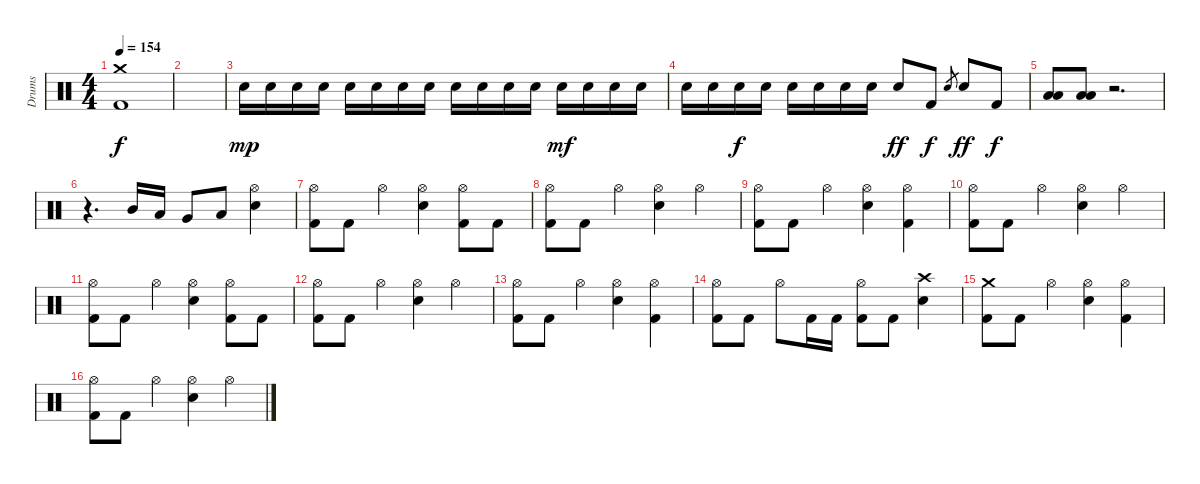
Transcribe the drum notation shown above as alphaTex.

\track ("Drums" "Drums") {instrument percussion}
\staff {score}
\articulation defaults
\ts (4 4)
\tempo 154
\clef neutral
\ks c
("Crash medium (hit)" "Kick (hit) 2").1{dy f} |
|
"Electric Snare (hit)".16{dy mp} "Electric Snare (hit)".16 "Electric Snare (hit)".16 "Electric Snare (hit)".16 "Electric Snare (hit)".16 "Electric Snare (hit)".16 "Electric Snare (hit)".16 "Electric Snare (hit)".16 "Electric Snare (hit)".16 "Electric Snare (hit)".16 "Electric Snare (hit)".16 "Electric Snare (hit)".16 "Electric Snare (hit)".16{dy mf} "Electric Snare (hit)".16 "Electric Snare (hit)".16 "Electric Snare (hit)".16 |
"Electric Snare (hit)".16 "Electric Snare (hit)".16 "Electric Snare (hit)".16{dy f} "Electric Snare (hit)".16 "Electric Snare (hit)".16 "Electric Snare (hit)".16 "Electric Snare (hit)".16 "Electric Snare (hit)".16 "Electric Snare (hit)".8{dy ff} "Kick (hit) 2".8{dy f} "Electric Snare (hit)".8{gr} "Electric Snare (hit)".8{dy ff} "Kick (hit) 2".8{dy f} |
("Low Tom (hit)" "Low Floor Tom (hit)").8 ("Low Tom (hit)" "Low Floor Tom (hit)").8 r.2{d} |
r.4{d} "Mid Tom (hit)".16 "Low Tom (hit)".16 "Very Low Tom (hit)".8 "Low Floor Tom (hit)".8 ("Hi-Hat (open)" "Electric Snare (hit)").4 |
("Hi-Hat (open)" "Kick (hit) 2").8 "Kick (hit) 2".8 "Hi-Hat (open)".4 ("Hi-Hat (open)" "Electric Snare (hit)").4 ("Hi-Hat (open)" "Kick (hit) 2").8 "Kick (hit) 2".8 |
("Hi-Hat (open)" "Kick (hit) 2").8 "Kick (hit) 2".8 "Hi-Hat (open)".4 ("Hi-Hat (open)" "Electric Snare (hit)").4 "Hi-Hat (open)".4 |
("Hi-Hat (open)" "Kick (hit) 2").8 "Kick (hit) 2".8 "Hi-Hat (open)".4 ("Hi-Hat (open)" "Electric Snare (hit)").4 ("Hi-Hat (open)" "Kick (hit) 2").4 |
("Hi-Hat (open)" "Kick (hit) 2").8 "Kick (hit) 2".8 "Hi-Hat (open)".4 ("Hi-Hat (open)" "Electric Snare (hit)").4 "Hi-Hat (open)".4 |
("Hi-Hat (open)" "Kick (hit) 2").8 "Kick (hit) 2".8 "Hi-Hat (open)".4 ("Hi-Hat (open)" "Electric Snare (hit)").4 ("Hi-Hat (open)" "Kick (hit) 2").8 "Kick (hit) 2".8 |
("Hi-Hat (open)" "Kick (hit) 2").8 "Kick (hit) 2".8 "Hi-Hat (open)".4 ("Hi-Hat (open)" "Electric Snare (hit)").4 "Hi-Hat (open)".4 |
("Hi-Hat (open)" "Kick (hit) 2").8 "Kick (hit) 2".8 "Hi-Hat (open)".4 ("Hi-Hat (open)" "Electric Snare (hit)").4 ("Hi-Hat (open)" "Kick (hit) 2").4 |
("Hi-Hat (open)" "Kick (hit) 2").8 "Kick (hit) 2".8 "Hi-Hat (open)".8 "Kick (hit) 2".16 "Kick (hit) 2".16 ("Hi-Hat (open)" "Kick (hit) 2").8 "Kick (hit) 2".8 ("Crash high (hit)" "Electric Snare (hit)").4 |
("Crash medium (hit)" "Kick (hit) 2").8 "Kick (hit) 2".8 "Hi-Hat (open)".4 ("Hi-Hat (open)" "Electric Snare (hit)").4 ("Hi-Hat (open)" "Kick (hit) 2").4 |
("Hi-Hat (open)" "Kick (hit) 2").8 "Kick (hit) 2".8 "Hi-Hat (open)".4 ("Hi-Hat (open)" "Electric Snare (hit)").4 "Hi-Hat (open)".4
